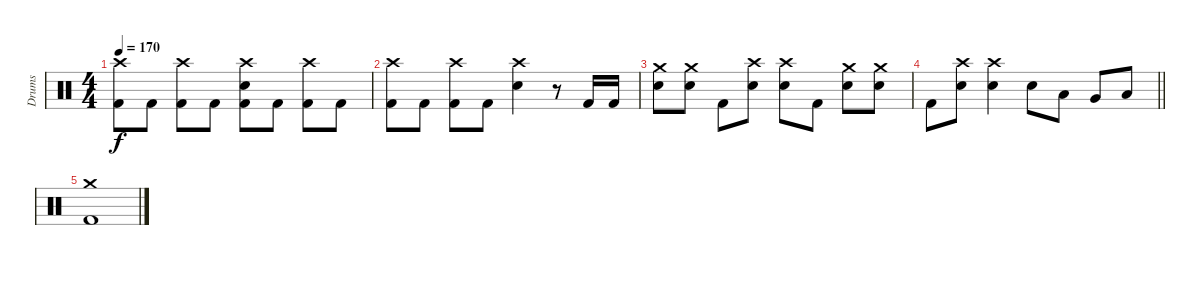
\track ("Drums" "Drums") {instrument percussion}
\staff {score}
\articulation defaults
\ts (4 4)
\tempo 170
\clef neutral
\ks c
("Crash high (hit)" "Kick (hit) 2").8{dy f} "Kick (hit) 2".8 ("Crash high (hit)" "Kick (hit) 2").8 "Kick (hit) 2".8 ("Crash high (hit)" "Snare (hit) 2" "Kick (hit) 2").8 "Kick (hit) 2".8 ("Crash high (hit)" "Kick (hit) 2").8 "Kick (hit) 2".8 |
("Crash high (hit)" "Kick (hit) 2").8 "Kick (hit) 2".8 ("Crash high (hit)" "Kick (hit) 2").8 "Kick (hit) 2".8 ("Crash high (hit)" "Snare (hit) 2").4 r.8 "Kick (hit) 2".16 "Kick (hit) 2".16 |
("Crash medium (hit)" "Snare (hit) 2").8 ("Crash medium (hit)" "Snare (hit) 2").8 "Kick (hit) 2".8 ("Crash high (hit)" "Snare (hit) 2").8 ("Crash high (hit)" "Snare (hit) 2").8 "Kick (hit) 2".8 ("Crash medium (hit)" "Snare (hit) 2").8 ("Crash medium (hit)" "Snare (hit) 2").8 |
\barLineRight lightlight "Kick (hit) 2".8
("Crash high (hit)" "Snare (hit) 2").8 ("Crash high (hit)" "Snare (hit) 2").4 "Snare (hit) 2".8 "Low Tom (hit)".8 "Very Low Tom (hit)".8 "Low Floor Tom (hit)".8 |
("Crash medium (hit)" "Kick (hit) 2").1
